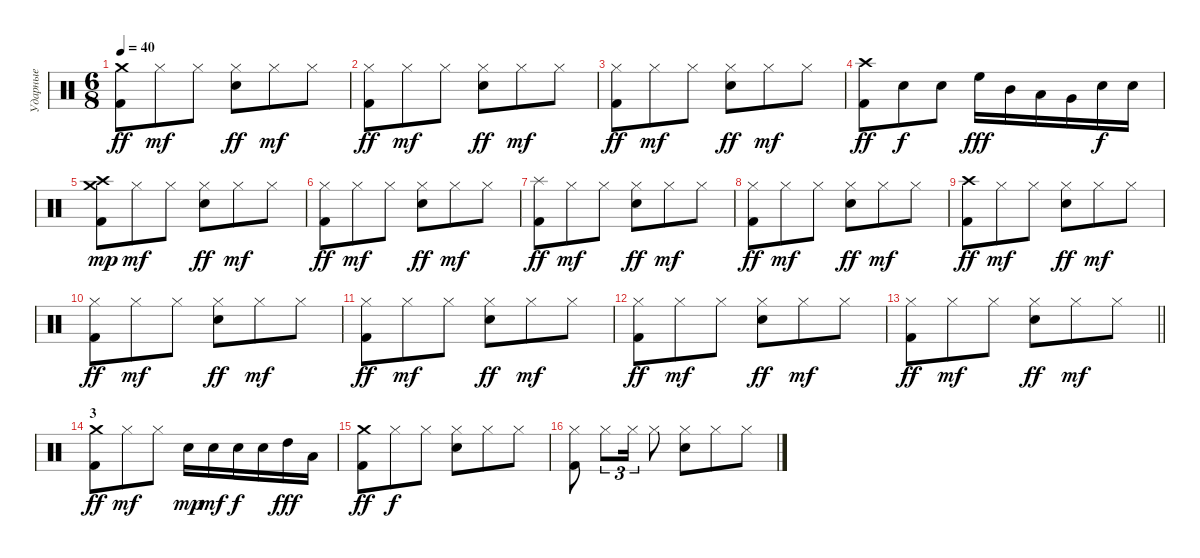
\track ("Ударные" "Ударные") {instrument percussion}
\staff {score}
\articulation defaults
\ts (6 8)
\tempo 40
\clef neutral
\ks c
("Crash medium (hit)" "Kick (hit) 2").8{dy ff} "Hi-Hat (closed)".8{dy mf} "Hi-Hat (closed)".8 ("Hi-Hat (closed)" "Snare (hit) 2").8{dy ff} "Hi-Hat (closed)".8{dy mf} "Hi-Hat (closed)".8 |
("Hi-Hat (closed)" "Kick (hit) 2").8{dy ff} "Hi-Hat (closed)".8{dy mf} "Hi-Hat (closed)".8 ("Hi-Hat (closed)" "Snare (hit) 2").8{dy ff} "Hi-Hat (closed)".8{dy mf} "Hi-Hat (closed)".8 |
("Hi-Hat (closed)" "Kick (hit) 2").8{dy ff} "Hi-Hat (closed)".8{dy mf} "Hi-Hat (closed)".8 ("Hi-Hat (closed)" "Snare (hit) 2").8{dy ff} "Hi-Hat (closed)".8{dy mf} "Hi-Hat (closed)".8 |
("Crash high (hit)" "Kick (hit) 2").8{dy ff} "Snare (hit) 2".8{dy f} "Snare (hit) 2".8 "High Floor Tom (hit)".16{dy fff} "Mid Tom (hit)".16 "Low Tom (hit)".16 "Very Low Tom (hit)".16 "Snare (hit) 2".16{dy f} "Snare (hit) 2".16 |
("Crash high (hit)" "Kick (hit) 2" "Crash medium (hit)").8{dy mp} "Hi-Hat (closed)".8{dy mf} "Hi-Hat (closed)".8 ("Hi-Hat (closed)" "Snare (hit) 2").8{dy ff} "Hi-Hat (closed)".8{dy mf} "Hi-Hat (closed)".8 |
("Hi-Hat (closed)" "Kick (hit) 2").8{dy ff} "Hi-Hat (closed)".8{dy mf} "Hi-Hat (closed)".8 ("Hi-Hat (closed)" "Snare (hit) 2").8{dy ff} "Hi-Hat (closed)".8{dy mf} "Hi-Hat (closed)".8 |
("Splash (hit)" "Kick (hit) 2").8{dy ff} "Hi-Hat (closed)".8{dy mf} "Hi-Hat (closed)".8 ("Hi-Hat (closed)" "Snare (hit) 2").8{dy ff} "Hi-Hat (closed)".8{dy mf} "Hi-Hat (closed)".8 |
("Hi-Hat (closed)" "Kick (hit) 2").8{dy ff} "Hi-Hat (closed)".8{dy mf} "Hi-Hat (closed)".8 ("Hi-Hat (closed)" "Snare (hit) 2").8{dy ff} "Hi-Hat (closed)".8{dy mf} "Hi-Hat (closed)".8 |
("Crash high (hit)" "Kick (hit) 2").8{dy ff} "Hi-Hat (closed)".8{dy mf} "Hi-Hat (closed)".8 ("Hi-Hat (closed)" "Snare (hit) 2").8{dy ff} "Hi-Hat (closed)".8{dy mf} "Hi-Hat (closed)".8 |
("Hi-Hat (closed)" "Kick (hit) 2").8{dy ff} "Hi-Hat (closed)".8{dy mf} "Hi-Hat (closed)".8 ("Hi-Hat (closed)" "Snare (hit) 2").8{dy ff} "Hi-Hat (closed)".8{dy mf} "Hi-Hat (closed)".8 |
("Hi-Hat (closed)" "Kick (hit) 2").8{dy ff} "Hi-Hat (closed)".8{dy mf} "Hi-Hat (closed)".8 ("Hi-Hat (closed)" "Snare (hit) 2").8{dy ff} "Hi-Hat (closed)".8{dy mf} "Hi-Hat (closed)".8 |
("Hi-Hat (closed)" "Kick (hit) 2").8{dy ff} "Hi-Hat (closed)".8{dy mf} "Hi-Hat (closed)".8 ("Hi-Hat (closed)" "Snare (hit) 2").8{dy ff} "Hi-Hat (closed)".8{dy mf} "Hi-Hat (closed)".8 |
\barLineRight lightlight
("Hi-Hat (closed)" "Kick (hit) 2").8{dy ff} "Hi-Hat (closed)".8{dy mf} "Hi-Hat (closed)".8 ("Hi-Hat (closed)" "Snare (hit) 2").8{dy ff} "Hi-Hat (closed)".8{dy mf} "Hi-Hat (closed)".8 |
\section ("" "3")
("Crash medium (hit)" "Kick (hit) 2").8{dy ff} "Hi-Hat (closed)".8{dy mf} "Hi-Hat (closed)".8 "Snare (hit) 2".16{dy mp} "Snare (hit) 2".16{dy mf} "Snare (hit) 2".16{dy f} "Snare (hit) 2".16 "High Tom (hit)".16{dy fff} "Low Tom (hit)".16 |
("Crash medium (hit)" "Kick (hit) 2").8{dy ff} "Hi-Hat (closed)".8{dy f} "Hi-Hat (closed)".8 ("Hi-Hat (closed)" "Snare (hit) 2").8 "Hi-Hat (closed)".8 "Hi-Hat (closed)".8 |
("Hi-Hat (closed)" "Kick (hit) 2").8 "Hi-Hat (closed)".8{tu (3 2)} "Hi-Hat (closed)".16{tu (3 2)} "Hi-Hat (closed)".8 ("Hi-Hat (closed)" "Snare (hit) 2").8 "Hi-Hat (closed)".8 "Hi-Hat (closed)".8
